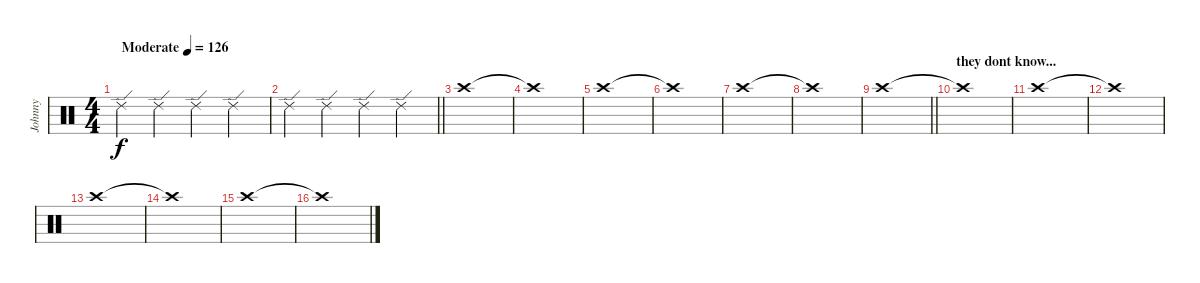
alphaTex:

\track ("Johnny" "Johnny") {instrument percussion}
\staff {score}
\articulation defaults
\ts (4 4)
\tempo (126 "Moderate")
\clef neutral
\ks c "Ride (edge) 2".4{dy f volume 2} "Ride (edge) 2".4 "Ride (edge) 2".4{volume 6} "Ride (edge) 2".4
|
\barLineRight lightlight "Ride (edge) 2".4{volume 9} "Ride (edge) 2".4{volume 16} "Ride (edge) 2".4 "Ride (edge) 2".4
|
"Crash high (hit)".1 |
"Crash high (hit)"{t}.1 |
"Crash high (hit)".1 |
"Crash high (hit)"{t}.1 |
"Crash high (hit)".1 |
"Crash high (hit)"{t}.1 |
\barLineRight lightlight "Crash high (hit)".1
|
\section ("" "they dont know...")
"Crash high (hit)"{t}.1 |
"Crash high (hit)".1 |
"Crash high (hit)"{t}.1 |
"Crash high (hit)".1 |
"Crash high (hit)"{t}.1 |
"Crash high (hit)".1 |
"Crash high (hit)"{t}.1
